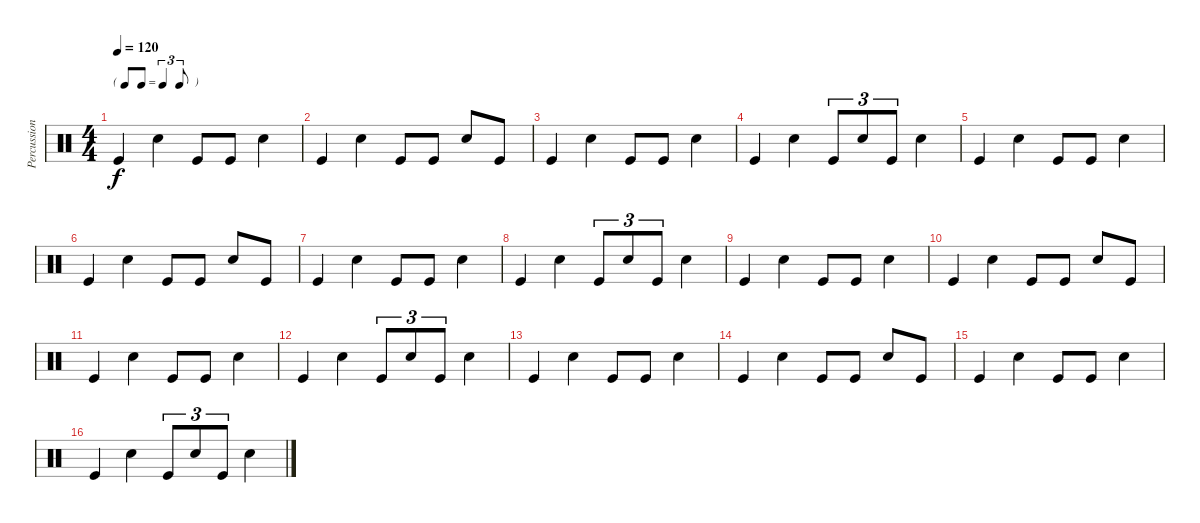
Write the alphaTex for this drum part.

\track ("Percussion" "Percussion") {instrument percussion}
\staff {score}
\articulation defaults
\ts (4 4)
\tf triplet8th
\tempo 120
\clef neutral
\ks c "Kick (hit)".4{dy f} "Electric Snare (hit)".4 "Kick (hit)".8 "Kick (hit)".8 "Electric Snare (hit)".4
|
"Kick (hit)".4 "Electric Snare (hit)".4 "Kick (hit)".8 "Kick (hit)".8 "Electric Snare (hit)".8 "Kick (hit)".8 |
"Kick (hit)".4 "Electric Snare (hit)".4 "Kick (hit)".8 "Kick (hit)".8 "Electric Snare (hit)".4 |
"Kick (hit)".4 "Electric Snare (hit)".4 "Kick (hit)".8{tu (3 2)} "Snare (hit) 2".8{tu (3 2)} "Kick (hit)".8{tu (3 2)} "Electric Snare (hit)".4 |
"Kick (hit)".4 "Electric Snare (hit)".4 "Kick (hit)".8 "Kick (hit)".8 "Electric Snare (hit)".4 |
"Kick (hit)".4 "Electric Snare (hit)".4 "Kick (hit)".8 "Kick (hit)".8 "Electric Snare (hit)".8 "Kick (hit)".8 |
"Kick (hit)".4 "Electric Snare (hit)".4 "Kick (hit)".8 "Kick (hit)".8 "Electric Snare (hit)".4 |
"Kick (hit)".4 "Electric Snare (hit)".4 "Kick (hit)".8{tu (3 2)} "Snare (hit) 2".8{tu (3 2)} "Kick (hit)".8{tu (3 2)} "Electric Snare (hit)".4 |
"Kick (hit)".4 "Electric Snare (hit)".4 "Kick (hit)".8 "Kick (hit)".8 "Electric Snare (hit)".4 |
"Kick (hit)".4 "Electric Snare (hit)".4 "Kick (hit)".8 "Kick (hit)".8 "Electric Snare (hit)".8 "Kick (hit)".8 |
"Kick (hit)".4 "Electric Snare (hit)".4 "Kick (hit)".8 "Kick (hit)".8 "Electric Snare (hit)".4 |
"Kick (hit)".4 "Electric Snare (hit)".4 "Kick (hit)".8{tu (3 2)} "Snare (hit) 2".8{tu (3 2)} "Kick (hit)".8{tu (3 2)} "Electric Snare (hit)".4 |
"Kick (hit)".4 "Electric Snare (hit)".4 "Kick (hit)".8 "Kick (hit)".8 "Electric Snare (hit)".4 |
"Kick (hit)".4 "Electric Snare (hit)".4 "Kick (hit)".8 "Kick (hit)".8 "Electric Snare (hit)".8 "Kick (hit)".8 |
"Kick (hit)".4 "Electric Snare (hit)".4 "Kick (hit)".8 "Kick (hit)".8 "Electric Snare (hit)".4 |
"Kick (hit)".4 "Electric Snare (hit)".4 "Kick (hit)".8{tu (3 2)} "Snare (hit) 2".8{tu (3 2)} "Kick (hit)".8{tu (3 2)} "Electric Snare (hit)".4
